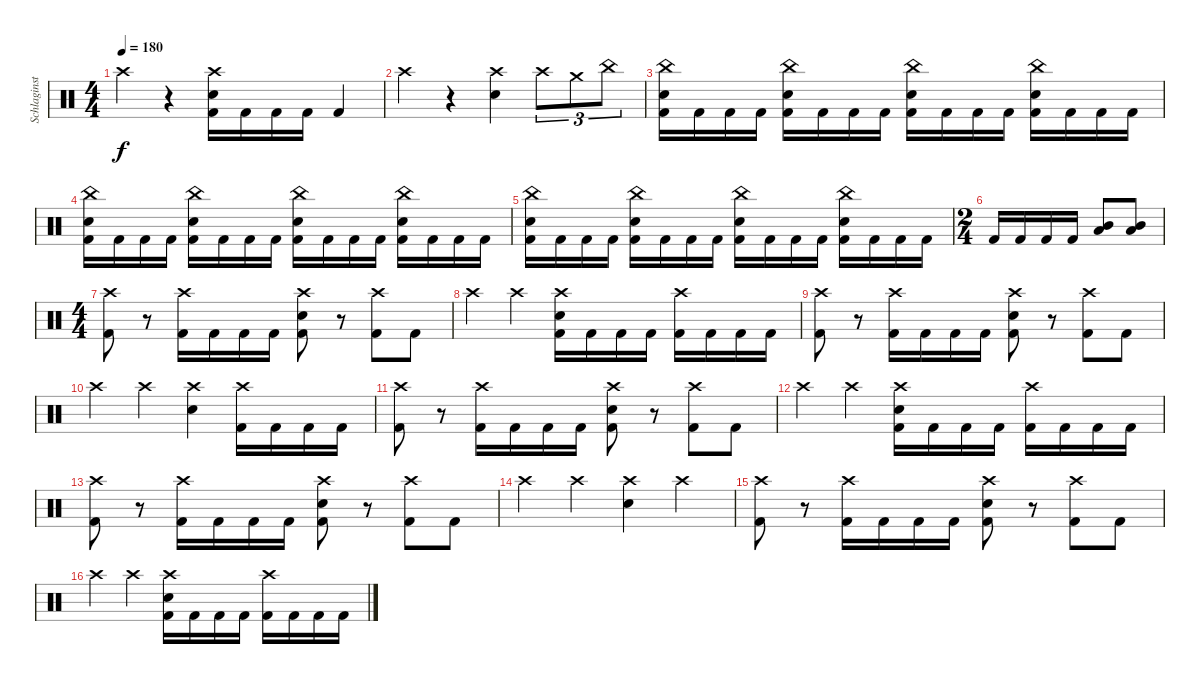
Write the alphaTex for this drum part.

\track ("Schlaginstrumente - Auswahl" "Schlaginst") {instrument percussion}
\staff {score}
\articulation defaults
\ts (4 4)
\tempo 180
\clef neutral
\ks c "Crash high (hit)".4{dy f}
r.4 ("Crash high (hit)" "Snare (hit) 2" "Kick (hit) 2").16 "Kick (hit) 2".16 "Kick (hit) 2".16 "Kick (hit) 2".16 "Kick (hit) 2".4 |
"Crash high (hit)".4 r.4 ("Crash high (hit)" "Snare (hit) 2").4 "Crash high (hit)".8{tu (3 2)} "Crash medium (hit)".8{tu (3 2)} "China (hit)".8{tu (3 2)} |
("China (hit)" "Snare (hit) 2" "Kick (hit) 2").16 "Kick (hit) 2".16 "Kick (hit) 2".16 "Kick (hit) 2".16 ("China (hit)" "Snare (hit) 2" "Kick (hit) 2").16 "Kick (hit) 2".16 "Kick (hit) 2".16 "Kick (hit) 2".16 ("China (hit)" "Snare (hit) 2" "Kick (hit) 2").16 "Kick (hit) 2".16 "Kick (hit) 2".16 "Kick (hit) 2".16 ("China (hit)" "Snare (hit) 2" "Kick (hit) 2").16 "Kick (hit) 2".16 "Kick (hit) 2".16 "Kick (hit) 2".16 |
("China (hit)" "Snare (hit) 2" "Kick (hit) 2").16 "Kick (hit) 2".16 "Kick (hit) 2".16 "Kick (hit) 2".16 ("China (hit)" "Snare (hit) 2" "Kick (hit) 2").16 "Kick (hit) 2".16 "Kick (hit) 2".16 "Kick (hit) 2".16 ("China (hit)" "Snare (hit) 2" "Kick (hit) 2").16 "Kick (hit) 2".16 "Kick (hit) 2".16 "Kick (hit) 2".16 ("China (hit)" "Snare (hit) 2" "Kick (hit) 2").16 "Kick (hit) 2".16 "Kick (hit) 2".16 "Kick (hit) 2".16 |
("China (hit)" "Snare (hit) 2" "Kick (hit) 2").16 "Kick (hit) 2".16 "Kick (hit) 2".16 "Kick (hit) 2".16 ("China (hit)" "Snare (hit) 2" "Kick (hit) 2").16 "Kick (hit) 2".16 "Kick (hit) 2".16 "Kick (hit) 2".16 ("China (hit)" "Snare (hit) 2" "Kick (hit) 2").16 "Kick (hit) 2".16 "Kick (hit) 2".16 "Kick (hit) 2".16 ("China (hit)" "Snare (hit) 2" "Kick (hit) 2").16 "Kick (hit) 2".16 "Kick (hit) 2".16 "Kick (hit) 2".16 |
\ts (2 4)
"Kick (hit) 2".16 "Kick (hit) 2".16 "Kick (hit) 2".16 "Kick (hit) 2".16 ("Mid Tom (hit)" "Low Tom (hit)").8 ("Mid Tom (hit)" "Low Tom (hit)").8 |
\ts (4 4)
("Crash high (hit)" "Kick (hit) 2").8 r.8 ("Crash high (hit)" "Kick (hit) 2").16 "Kick (hit) 2".16 "Kick (hit) 2".16 "Kick (hit) 2".16 ("Crash high (hit)" "Snare (hit) 2" "Kick (hit) 2").8 r.8 ("Crash high (hit)" "Kick (hit) 2").8 "Kick (hit) 2".8 |
"Crash high (hit)".4 "Crash high (hit)".4 ("Crash high (hit)" "Snare (hit) 2" "Kick (hit) 2").16 "Kick (hit) 2".16 "Kick (hit) 2".16 "Kick (hit) 2".16 ("Crash high (hit)" "Kick (hit) 2").16 "Kick (hit) 2".16 "Kick (hit) 2".16 "Kick (hit) 2".16 |
("Crash high (hit)" "Kick (hit) 2").8 r.8 ("Crash high (hit)" "Kick (hit) 2").16 "Kick (hit) 2".16 "Kick (hit) 2".16 "Kick (hit) 2".16 ("Crash high (hit)" "Snare (hit) 2" "Kick (hit) 2").8 r.8 ("Crash high (hit)" "Kick (hit) 2").8 "Kick (hit) 2".8 |
"Crash high (hit)".4 "Crash high (hit)".4 ("Crash high (hit)" "Snare (hit) 2").4 ("Crash high (hit)" "Kick (hit) 2").16 "Kick (hit) 2".16 "Kick (hit) 2".16 "Kick (hit) 2".16 |
("Crash high (hit)" "Kick (hit) 2").8 r.8 ("Crash high (hit)" "Kick (hit) 2").16 "Kick (hit) 2".16 "Kick (hit) 2".16 "Kick (hit) 2".16 ("Crash high (hit)" "Snare (hit) 2" "Kick (hit) 2").8 r.8 ("Crash high (hit)" "Kick (hit) 2").8 "Kick (hit) 2".8 |
"Crash high (hit)".4 "Crash high (hit)".4 ("Crash high (hit)" "Snare (hit) 2" "Kick (hit) 2").16 "Kick (hit) 2".16 "Kick (hit) 2".16 "Kick (hit) 2".16 ("Crash high (hit)" "Kick (hit) 2").16 "Kick (hit) 2".16 "Kick (hit) 2".16 "Kick (hit) 2".16 |
("Crash high (hit)" "Kick (hit) 2").8 r.8 ("Crash high (hit)" "Kick (hit) 2").16 "Kick (hit) 2".16 "Kick (hit) 2".16 "Kick (hit) 2".16 ("Crash high (hit)" "Snare (hit) 2" "Kick (hit) 2").8 r.8 ("Crash high (hit)" "Kick (hit) 2").8 "Kick (hit) 2".8 |
"Crash high (hit)".4 "Crash high (hit)".4 ("Crash high (hit)" "Snare (hit) 2").4 "Crash high (hit)".4 |
("Crash high (hit)" "Kick (hit) 2").8 r.8 ("Crash high (hit)" "Kick (hit) 2").16 "Kick (hit) 2".16 "Kick (hit) 2".16 "Kick (hit) 2".16 ("Crash high (hit)" "Snare (hit) 2" "Kick (hit) 2").8 r.8 ("Crash high (hit)" "Kick (hit) 2").8 "Kick (hit) 2".8 |
"Crash high (hit)".4 "Crash high (hit)".4 ("Crash high (hit)" "Snare (hit) 2" "Kick (hit) 2").16 "Kick (hit) 2".16 "Kick (hit) 2".16 "Kick (hit) 2".16 ("Crash high (hit)" "Kick (hit) 2").16 "Kick (hit) 2".16 "Kick (hit) 2".16 "Kick (hit) 2".16
